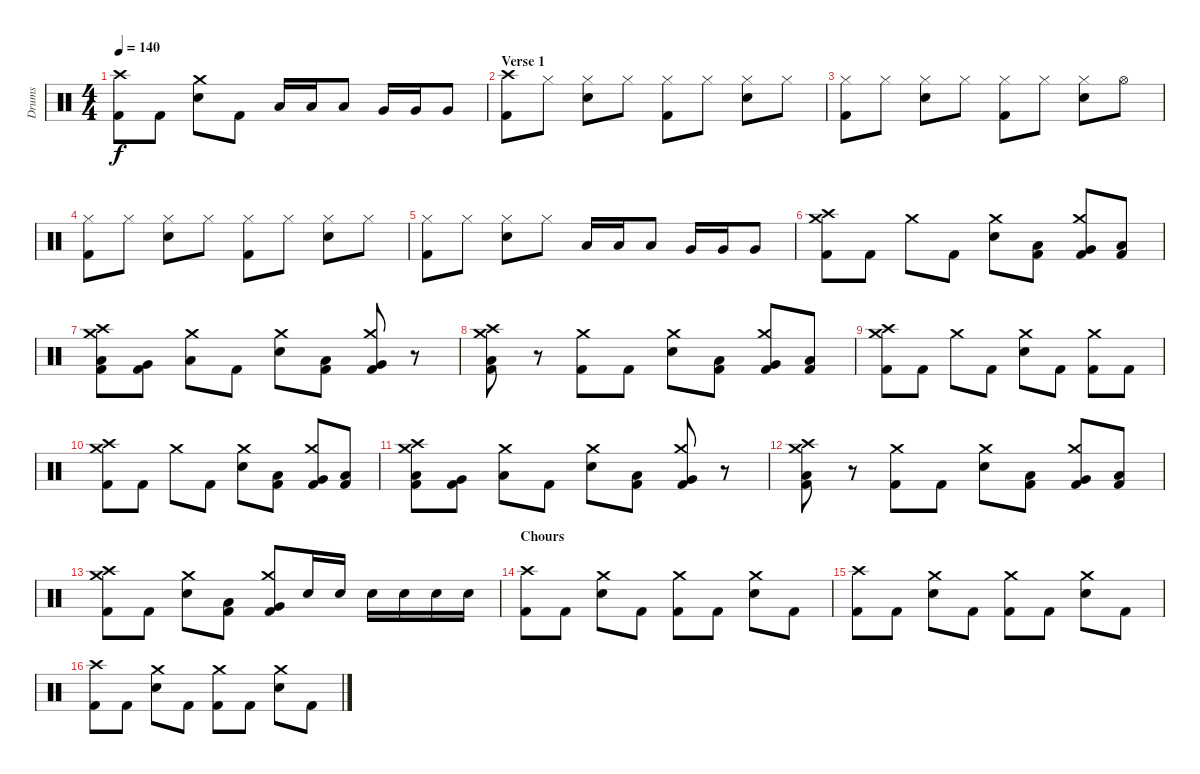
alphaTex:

\track ("Drums" "Drums") {instrument percussion}
\staff {score}
\articulation defaults
\ts (4 4)
\tempo 140
\clef neutral
\ks c
("Crash high (hit)" "Kick (hit) 2").8{dy f} "Kick (hit) 2".8 ("Crash medium (hit)" "Snare (hit) 2").8 "Kick (hit) 2".8 "Low Tom (hit)".16 "Low Tom (hit)".16 "Low Tom (hit)".8 "Very Low Tom (hit)".16 "Very Low Tom (hit)".16 "Very Low Tom (hit)".8 |
\section ("" "Verse 1")
("Crash high (hit)" "Kick (hit) 2").8 "Hi-Hat (closed)".8 ("Hi-Hat (closed)" "Snare (hit) 2").8 "Hi-Hat (closed)".8 ("Hi-Hat (closed)" "Kick (hit) 2").8 "Hi-Hat (closed)".8 ("Hi-Hat (closed)" "Snare (hit) 2").8 "Hi-Hat (closed)".8 |
("Hi-Hat (closed)" "Kick (hit) 2").8 "Hi-Hat (closed)".8 ("Hi-Hat (closed)" "Snare (hit) 2").8 "Hi-Hat (closed)".8 ("Hi-Hat (closed)" "Kick (hit) 2").8 "Hi-Hat (closed)".8 ("Hi-Hat (closed)" "Snare (hit) 2").8 "Hi-Hat (open)".8 |
("Hi-Hat (closed)" "Kick (hit) 2").8 "Hi-Hat (closed)".8 ("Hi-Hat (closed)" "Snare (hit) 2").8 "Hi-Hat (closed)".8 ("Hi-Hat (closed)" "Kick (hit) 2").8 "Hi-Hat (closed)".8 ("Hi-Hat (closed)" "Snare (hit) 2").8 "Hi-Hat (closed)".8 |
("Hi-Hat (closed)" "Kick (hit) 2").8 "Hi-Hat (closed)".8 ("Hi-Hat (closed)" "Snare (hit) 2").8 "Hi-Hat (closed)".8 "Low Tom (hit)".16 "Low Tom (hit)".16 "Low Tom (hit)".8 "Very Low Tom (hit)".16 "Very Low Tom (hit)".16 "Very Low Tom (hit)".8 |
("Crash high (hit)" "Crash medium (hit)" "Kick (hit) 2").8 "Kick (hit) 2".8 "Crash medium (hit)".8 "Kick (hit) 2".8 ("Crash medium (hit)" "Snare (hit) 2").8 ("Low Tom (hit)" "Kick (hit) 2").8 ("Crash medium (hit)" "Very Low Tom (hit)" "Kick (hit) 2").8 ("Low Floor Tom (hit)" "Kick (hit) 2").8 |
("Crash high (hit)" "Crash medium (hit)" "Low Tom (hit)" "Kick (hit) 2").8 ("Very Low Tom (hit)" "Kick (hit) 2").8 ("Crash medium (hit)" "Low Floor Tom (hit)").8 "Kick (hit) 2".8 ("Crash medium (hit)" "Snare (hit) 2").8 ("Low Tom (hit)" "Kick (hit) 2").8 ("Crash medium (hit)" "Very Low Tom (hit)" "Kick (hit) 2").8 r.8 |
("Crash high (hit)" "Crash medium (hit)" "Low Tom (hit)" "Kick (hit) 2").8 r.8 ("Crash medium (hit)" "Kick (hit) 2").8 "Kick (hit) 2".8 ("Crash medium (hit)" "Snare (hit) 2").8 ("Low Tom (hit)" "Kick (hit) 2").8 ("Crash medium (hit)" "Very Low Tom (hit)" "Kick (hit) 2").8 ("Low Floor Tom (hit)" "Kick (hit) 2").8 |
("Crash high (hit)" "Crash medium (hit)" "Kick (hit) 2").8 "Kick (hit) 2".8 "Crash medium (hit)".8 "Kick (hit) 2".8 ("Crash medium (hit)" "Snare (hit) 2").8 "Kick (hit) 2".8 ("Crash medium (hit)" "Kick (hit) 2").8 "Kick (hit) 2".8 |
("Crash high (hit)" "Crash medium (hit)" "Kick (hit) 2").8 "Kick (hit) 2".8 "Crash medium (hit)".8 "Kick (hit) 2".8 ("Crash medium (hit)" "Snare (hit) 2").8 ("Low Tom (hit)" "Kick (hit) 2").8 ("Crash medium (hit)" "Very Low Tom (hit)" "Kick (hit) 2").8 ("Low Floor Tom (hit)" "Kick (hit) 2").8 |
("Crash high (hit)" "Crash medium (hit)" "Low Tom (hit)" "Kick (hit) 2").8 ("Very Low Tom (hit)" "Kick (hit) 2").8 ("Crash medium (hit)" "Low Floor Tom (hit)").8 "Kick (hit) 2".8 ("Crash medium (hit)" "Snare (hit) 2").8 ("Low Tom (hit)" "Kick (hit) 2").8 ("Crash medium (hit)" "Very Low Tom (hit)" "Kick (hit) 2").8 r.8 |
("Crash high (hit)" "Crash medium (hit)" "Low Tom (hit)" "Kick (hit) 2").8 r.8 ("Crash medium (hit)" "Kick (hit) 2").8 "Kick (hit) 2".8 ("Crash medium (hit)" "Snare (hit) 2").8 ("Low Tom (hit)" "Kick (hit) 2").8 ("Crash medium (hit)" "Very Low Tom (hit)" "Kick (hit) 2").8 ("Low Floor Tom (hit)" "Kick (hit) 2").8 |
("Crash high (hit)" "Crash medium (hit)" "Kick (hit) 2").8 "Kick (hit) 2".8 ("Crash medium (hit)" "Snare (hit) 2").8 ("Low Tom (hit)" "Kick (hit) 2").8 ("Crash medium (hit)" "Very Low Tom (hit)" "Kick (hit) 2").8 "Snare (hit) 2".16 "Snare (hit) 2".16 "Snare (hit) 2".16 "Snare (hit) 2".16 "Snare (hit) 2".16 "Snare (hit) 2".16 |
\section ("" "Chours")
("Crash high (hit)" "Kick (hit) 2").8 "Kick (hit) 2".8 ("Crash medium (hit)" "Snare (hit) 2").8 "Kick (hit) 2".8 ("Crash medium (hit)" "Kick (hit) 2").8 "Kick (hit) 2".8 ("Crash medium (hit)" "Snare (hit) 2").8 "Kick (hit) 2".8 |
("Crash high (hit)" "Kick (hit) 2").8 "Kick (hit) 2".8 ("Crash medium (hit)" "Snare (hit) 2").8 "Kick (hit) 2".8 ("Crash medium (hit)" "Kick (hit) 2").8 "Kick (hit) 2".8 ("Crash medium (hit)" "Snare (hit) 2").8 "Kick (hit) 2".8 |
("Crash high (hit)" "Kick (hit) 2").8 "Kick (hit) 2".8 ("Crash medium (hit)" "Snare (hit) 2").8 "Kick (hit) 2".8 ("Crash medium (hit)" "Kick (hit) 2").8 "Kick (hit) 2".8 ("Crash medium (hit)" "Snare (hit) 2").8 "Kick (hit) 2".8
